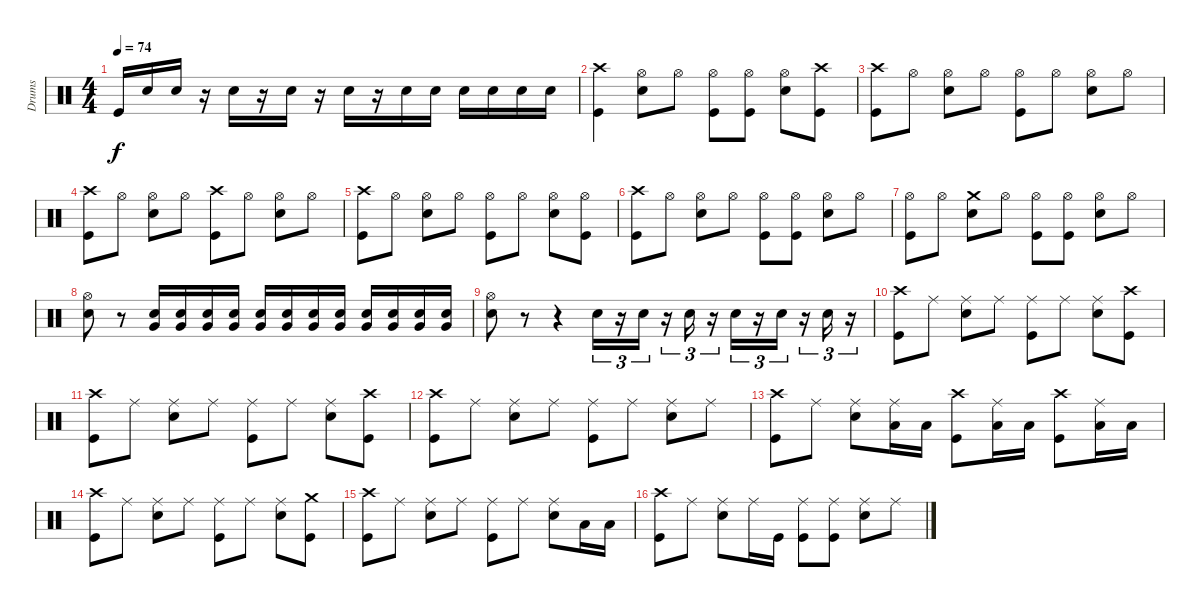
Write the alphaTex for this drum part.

\track ("Drums" "Drums") {instrument percussion}
\staff {score}
\articulation defaults
\ts (4 4)
\tempo 74
\clef neutral
\ks c "Kick (hit)".16{dy f} "Electric Snare (hit)".16 "Electric Snare (hit)".16
r.16 "Electric Snare (hit)".16 r.16 "Electric Snare (hit)".16 r.16 "Electric Snare (hit)".16 r.16 "Electric Snare (hit)".16 "Electric Snare (hit)".16 "Electric Snare (hit)".16 "Electric Snare (hit)".16 "Electric Snare (hit)".16 "Electric Snare (hit)".16 |
("Crash high (hit)" "Kick (hit)").4 ("Hi-Hat (open)" "Electric Snare (hit)").8 "Hi-Hat (open)".8 ("Hi-Hat (open)" "Kick (hit)").8 ("Hi-Hat (open)" "Kick (hit)").8 ("Hi-Hat (open)" "Electric Snare (hit)").8 ("Crash high (hit)" "Kick (hit)").8 |
("Crash high (hit)" "Kick (hit)").8 "Hi-Hat (open)".8 ("Hi-Hat (open)" "Electric Snare (hit)").8 "Hi-Hat (open)".8 ("Hi-Hat (open)" "Kick (hit)").8 "Hi-Hat (open)".8 ("Hi-Hat (open)" "Electric Snare (hit)").8 "Hi-Hat (open)".8 |
("Crash high (hit)" "Kick (hit)").8 "Hi-Hat (open)".8 ("Hi-Hat (open)" "Electric Snare (hit)").8 "Hi-Hat (open)".8 ("Crash high (hit)" "Kick (hit)").8 "Hi-Hat (open)".8 ("Hi-Hat (open)" "Electric Snare (hit)").8 "Hi-Hat (open)".8 |
("Crash high (hit)" "Kick (hit)").8 "Hi-Hat (open)".8 ("Hi-Hat (open)" "Electric Snare (hit)").8 "Hi-Hat (open)".8 ("Hi-Hat (open)" "Kick (hit)").8 "Hi-Hat (open)".8 ("Hi-Hat (open)" "Electric Snare (hit)").8 ("Hi-Hat (open)" "Kick (hit)").8 |
("Crash high (hit)" "Kick (hit)").8 "Hi-Hat (open)".8 ("Hi-Hat (open)" "Electric Snare (hit)").8 "Hi-Hat (open)".8 ("Hi-Hat (open)" "Kick (hit)").8 ("Hi-Hat (open)" "Kick (hit)").8 ("Hi-Hat (open)" "Electric Snare (hit)").8 "Hi-Hat (open)".8 |
("Hi-Hat (open)" "Kick (hit)").8 "Hi-Hat (open)".8 ("Crash medium (hit)" "Electric Snare (hit)").8 "Hi-Hat (open)".8 ("Hi-Hat (open)" "Kick (hit)").8 ("Hi-Hat (open)" "Kick (hit)").8 ("Hi-Hat (open)" "Electric Snare (hit)").8 "Hi-Hat (open)".8 |
("Hi-Hat (open)" "Electric Snare (hit)").8 r.8 ("Electric Snare (hit)" "Very Low Tom (hit)").16{volume 2} ("Electric Snare (hit)" "Very Low Tom (hit)").16 ("Electric Snare (hit)" "Very Low Tom (hit)").16{volume 5} ("Electric Snare (hit)" "Very Low Tom (hit)").16 ("Electric Snare (hit)" "Very Low Tom (hit)").16{volume 8} ("Electric Snare (hit)" "Very Low Tom (hit)").16 ("Electric Snare (hit)" "Very Low Tom (hit)").16{volume 10} ("Electric Snare (hit)" "Very Low Tom (hit)").16 ("Electric Snare (hit)" "Very Low Tom (hit)").16{volume 12} ("Electric Snare (hit)" "Very Low Tom (hit)").16 ("Electric Snare (hit)" "Very Low Tom (hit)").16{volume 14} ("Electric Snare (hit)" "Very Low Tom (hit)").16 |
("Hi-Hat (open)" "Electric Snare (hit)").8 r.8 r.4 "Electric Snare (hit)".16{tu (3 2)} r.16{tu (3 2)} "Electric Snare (hit)".16{tu (3 2)} r.16{tu (3 2)} "Electric Snare (hit)".16{tu (3 2)} r.16{tu (3 2)} "Electric Snare (hit)".16{tu (3 2)} r.16{tu (3 2)} "Electric Snare (hit)".16{tu (3 2)} r.16{tu (3 2)} "Electric Snare (hit)".16{tu (3 2)} r.16{tu (3 2)} |
("Crash high (hit)" "Kick (hit)").8 "Ride (middle)".8 ("Ride (middle)" "Electric Snare (hit)").8 "Ride (middle)".8 ("Ride (middle)" "Kick (hit)").8 "Ride (middle)".8 ("Ride (middle)" "Electric Snare (hit)").8 ("Crash high (hit)" "Kick (hit)").8 |
("Crash high (hit)" "Kick (hit)").8 "Ride (middle)".8 ("Ride (middle)" "Electric Snare (hit)").8 "Ride (middle)".8 ("Ride (middle)" "Kick (hit)").8 "Ride (middle)".8 ("Ride (middle)" "Electric Snare (hit)").8 ("Crash high (hit)" "Kick (hit)").8 |
("Crash high (hit)" "Kick (hit)").8 "Ride (middle)".8 ("Ride (middle)" "Electric Snare (hit)").8 "Ride (middle)".8 ("Ride (middle)" "Kick (hit)").8 "Ride (middle)".8 ("Ride (middle)" "Electric Snare (hit)").8 "Ride (middle)".8 |
("Crash high (hit)" "Kick (hit)").8 "Ride (middle)".8 ("Ride (middle)" "Electric Snare (hit)").8 ("Ride (middle)" "Low Floor Tom (hit)").16 "Low Floor Tom (hit)".16 ("Crash high (hit)" "Kick (hit)").8 ("Ride (middle)" "Low Floor Tom (hit)").16 "Low Floor Tom (hit)".16 ("Crash high (hit)" "Kick (hit)").8 ("Ride (middle)" "Low Floor Tom (hit)").16 "Low Floor Tom (hit)".16 |
("Crash high (hit)" "Kick (hit)").8 "Ride (middle)".8 ("Ride (middle)" "Electric Snare (hit)").8 "Ride (middle)".8 ("Ride (middle)" "Kick (hit)").8 "Ride (middle)".8 ("Ride (middle)" "Electric Snare (hit)").8 ("Crash medium (hit)" "Kick (hit)").8 |
("Crash high (hit)" "Kick (hit)").8 "Ride (middle)".8 ("Ride (middle)" "Electric Snare (hit)").8 "Ride (middle)".8 ("Ride (middle)" "Kick (hit)").8 "Ride (middle)".8 ("Ride (middle)" "Electric Snare (hit)").8 "Low Tom (hit)".16 "Low Tom (hit)".16 |
("Crash high (hit)" "Kick (hit)").8 "Ride (middle)".8 ("Ride (middle)" "Electric Snare (hit)").8 "Ride (middle)".16 "Kick (hit)".16 ("Ride (middle)" "Kick (hit)").8 ("Ride (middle)" "Kick (hit)").8 ("Ride (middle)" "Electric Snare (hit)").8 "Ride (middle)".8
